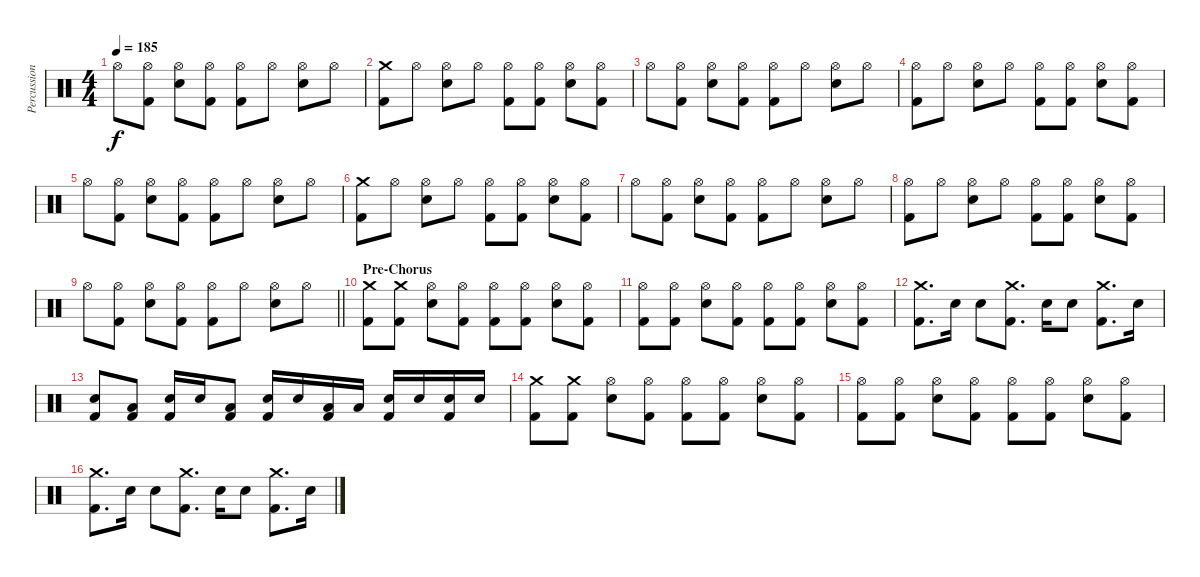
\track ("Percussion" "Percussion") {instrument percussion}
\staff {score}
\articulation defaults
\ts (4 4)
\tempo 185
\clef neutral
\ks c "Hi-Hat (open)".8{dy f}
("Hi-Hat (open)" "Kick (hit) 2").8 ("Hi-Hat (open)" "Electric Snare (hit)").8 ("Hi-Hat (open)" "Kick (hit) 2").8 ("Hi-Hat (open)" "Kick (hit) 2").8 "Hi-Hat (open)".8 ("Hi-Hat (open)" "Electric Snare (hit)").8 "Hi-Hat (open)".8 |
("Crash medium (hit)" "Kick (hit) 2").8 "Hi-Hat (open)".8 ("Hi-Hat (open)" "Electric Snare (hit)").8 "Hi-Hat (open)".8 ("Hi-Hat (open)" "Kick (hit) 2").8 ("Hi-Hat (open)" "Kick (hit) 2").8 ("Hi-Hat (open)" "Electric Snare (hit)").8 ("Hi-Hat (open)" "Kick (hit) 2").8 |
"Hi-Hat (open)".8 ("Hi-Hat (open)" "Kick (hit) 2").8 ("Hi-Hat (open)" "Electric Snare (hit)").8 ("Hi-Hat (open)" "Kick (hit) 2").8 ("Hi-Hat (open)" "Kick (hit) 2").8 "Hi-Hat (open)".8 ("Hi-Hat (open)" "Electric Snare (hit)").8 "Hi-Hat (open)".8 |
("Hi-Hat (open)" "Kick (hit) 2").8 "Hi-Hat (open)".8 ("Hi-Hat (open)" "Electric Snare (hit)").8 "Hi-Hat (open)".8 ("Hi-Hat (open)" "Kick (hit) 2").8 ("Hi-Hat (open)" "Kick (hit) 2").8 ("Hi-Hat (open)" "Electric Snare (hit)").8 ("Hi-Hat (open)" "Kick (hit) 2").8 |
"Hi-Hat (open)".8 ("Hi-Hat (open)" "Kick (hit) 2").8 ("Hi-Hat (open)" "Electric Snare (hit)").8 ("Hi-Hat (open)" "Kick (hit) 2").8 ("Hi-Hat (open)" "Kick (hit) 2").8 "Hi-Hat (open)".8 ("Hi-Hat (open)" "Electric Snare (hit)").8 "Hi-Hat (open)".8 |
("Crash medium (hit)" "Kick (hit) 2").8 "Hi-Hat (open)".8 ("Hi-Hat (open)" "Electric Snare (hit)").8 "Hi-Hat (open)".8 ("Hi-Hat (open)" "Kick (hit) 2").8 ("Hi-Hat (open)" "Kick (hit) 2").8 ("Hi-Hat (open)" "Electric Snare (hit)").8 ("Hi-Hat (open)" "Kick (hit) 2").8 |
"Hi-Hat (open)".8 ("Hi-Hat (open)" "Kick (hit) 2").8 ("Hi-Hat (open)" "Electric Snare (hit)").8 ("Hi-Hat (open)" "Kick (hit) 2").8 ("Hi-Hat (open)" "Kick (hit) 2").8 "Hi-Hat (open)".8 ("Hi-Hat (open)" "Electric Snare (hit)").8 "Hi-Hat (open)".8 |
("Hi-Hat (open)" "Kick (hit) 2").8 "Hi-Hat (open)".8 ("Hi-Hat (open)" "Electric Snare (hit)").8 "Hi-Hat (open)".8 ("Hi-Hat (open)" "Kick (hit) 2").8 ("Hi-Hat (open)" "Kick (hit) 2").8 ("Hi-Hat (open)" "Electric Snare (hit)").8 ("Hi-Hat (open)" "Kick (hit) 2").8 |
\barLineRight lightlight "Hi-Hat (open)".8
("Hi-Hat (open)" "Kick (hit) 2").8 ("Hi-Hat (open)" "Electric Snare (hit)").8 ("Hi-Hat (open)" "Kick (hit) 2").8 ("Hi-Hat (open)" "Kick (hit) 2").8 "Hi-Hat (open)".8 ("Hi-Hat (open)" "Electric Snare (hit)").8 "Hi-Hat (open)".8 |
\section ("" "Pre-Chorus")
("Crash medium (hit)" "Kick (hit) 2").8 ("Crash medium (hit)" "Kick (hit) 2").8 ("Hi-Hat (open)" "Electric Snare (hit)").8 ("Hi-Hat (open)" "Kick (hit) 2").8 ("Hi-Hat (open)" "Kick (hit) 2").8 ("Hi-Hat (open)" "Kick (hit) 2").8 ("Hi-Hat (open)" "Electric Snare (hit)").8 ("Hi-Hat (open)" "Kick (hit) 2").8 |
("Hi-Hat (open)" "Kick (hit) 2").8 ("Hi-Hat (open)" "Kick (hit) 2").8 ("Hi-Hat (open)" "Electric Snare (hit)").8 ("Hi-Hat (open)" "Kick (hit) 2").8 ("Hi-Hat (open)" "Kick (hit) 2").8 ("Hi-Hat (open)" "Kick (hit) 2").8 ("Hi-Hat (open)" "Electric Snare (hit)").8 ("Hi-Hat (open)" "Kick (hit) 2").8 |
("Crash medium (hit)" "Kick (hit) 2").8{d} "Electric Snare (hit)".16 "Electric Snare (hit)".8 ("Crash medium (hit)" "Kick (hit) 2").8{d} "Electric Snare (hit)".16 "Electric Snare (hit)".8 ("Crash medium (hit)" "Kick (hit) 2").8{d} "Electric Snare (hit)".16 |
("Electric Snare (hit)" "Kick (hit) 2").8 ("Low Floor Tom (hit)" "Kick (hit) 2").8 ("Electric Snare (hit)" "Kick (hit) 2").16 "Electric Snare (hit)".16 ("Low Floor Tom (hit)" "Kick (hit) 2").8 ("Electric Snare (hit)" "Kick (hit) 2").16 "Electric Snare (hit)".16 ("Low Floor Tom (hit)" "Kick (hit) 2").16 "Low Floor Tom (hit)".16 ("Electric Snare (hit)" "Kick (hit) 2").16 "Electric Snare (hit)".16 ("Electric Snare (hit)" "Kick (hit) 2").16 "Electric Snare (hit)".16 |
("Crash medium (hit)" "Kick (hit) 2").8 ("Crash medium (hit)" "Kick (hit) 2").8 ("Hi-Hat (open)" "Electric Snare (hit)").8 ("Hi-Hat (open)" "Kick (hit) 2").8 ("Hi-Hat (open)" "Kick (hit) 2").8 ("Hi-Hat (open)" "Kick (hit) 2").8 ("Hi-Hat (open)" "Electric Snare (hit)").8 ("Hi-Hat (open)" "Kick (hit) 2").8 |
("Hi-Hat (open)" "Kick (hit) 2").8 ("Hi-Hat (open)" "Kick (hit) 2").8 ("Hi-Hat (open)" "Electric Snare (hit)").8 ("Hi-Hat (open)" "Kick (hit) 2").8 ("Hi-Hat (open)" "Kick (hit) 2").8 ("Hi-Hat (open)" "Kick (hit) 2").8 ("Hi-Hat (open)" "Electric Snare (hit)").8 ("Hi-Hat (open)" "Kick (hit) 2").8 |
("Crash medium (hit)" "Kick (hit) 2").8{d} "Electric Snare (hit)".16 "Electric Snare (hit)".8 ("Crash medium (hit)" "Kick (hit) 2").8{d} "Electric Snare (hit)".16 "Electric Snare (hit)".8 ("Crash medium (hit)" "Kick (hit) 2").8{d} "Electric Snare (hit)".16
